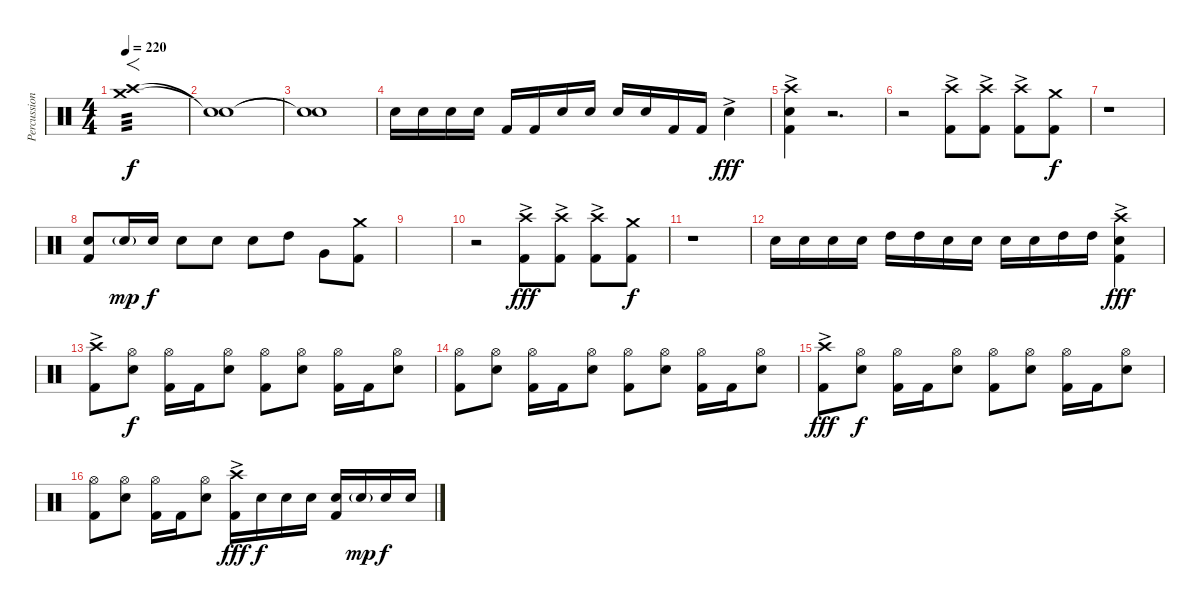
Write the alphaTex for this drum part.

\track ("Percussion" "Percussion") {instrument percussion}
\staff {score}
\articulation defaults
\ts (4 4)
\tempo 220
\clef neutral
\ks c
("Crash medium (hit)" "Crash high (hit)").1{f tp 3 dy f volume 1} |
("Snare (hit)"{t} "Snare (hit)"{t}).1{volume 13} |
("Snare (hit)"{t} "Snare (hit)"{t}).1 |
"Electric Snare (hit)".16 "Electric Snare (hit)".16 "Electric Snare (hit)".16 "Electric Snare (hit)".16 "Kick (hit) 2".16 "Kick (hit) 2".16 "Electric Snare (hit)".16 "Electric Snare (hit)".16 "Electric Snare (hit)".16 "Electric Snare (hit)".16 "Kick (hit) 2".16 "Kick (hit) 2".16 "Electric Snare (hit)"{ac}.4{dy fff} |
("Crash high (hit)"{ac} "Electric Snare (hit)" "Kick (hit) 2").4 r.2{d} |
r.2 ("Crash high (hit)"{ac} "Kick (hit) 2").8 ("Crash high (hit)"{ac} "Kick (hit) 2").8 ("Crash high (hit)"{ac} "Kick (hit) 2").8 ("Crash medium (hit)" "Kick (hit) 2").8{dy f} |
r.1 |
("Electric Snare (hit)" "Kick (hit) 2").8 "Electric Snare (hit)"{g}.16{dy mp} "Electric Snare (hit)".16{dy f} "Electric Snare (hit)".8 "Electric Snare (hit)".8 "Electric Snare (hit)".8 "High Tom (hit)".8 "Very Low Tom (hit)".8 ("Crash medium (hit)" "Kick (hit) 2").8 |
|
r.2 ("Crash high (hit)"{ac} "Kick (hit) 2").8{dy fff} ("Crash high (hit)"{ac} "Kick (hit) 2").8 ("Crash high (hit)"{ac} "Kick (hit) 2").8 ("Crash medium (hit)" "Kick (hit) 2").8{dy f} |
r.1 |
"Electric Snare (hit)".16 "Electric Snare (hit)".16 "Electric Snare (hit)".16 "Electric Snare (hit)".16 "High Tom (hit)".16 "High Tom (hit)".16 "Electric Snare (hit)".16 "Electric Snare (hit)".16 "Electric Snare (hit)".16 "Electric Snare (hit)".16 "High Tom (hit)".16 "High Tom (hit)".16 ("Crash high (hit)"{ac} "Electric Snare (hit)" "Kick (hit) 2").4{dy fff} |
("Crash high (hit)"{ac} "Kick (hit) 2").8 ("Hi-Hat (open)" "Electric Snare (hit)").8{dy f} ("Hi-Hat (open)" "Kick (hit) 2").16 "Kick (hit) 2".16 ("Hi-Hat (open)" "Electric Snare (hit)").8 ("Hi-Hat (open)" "Kick (hit) 2").8 ("Hi-Hat (open)" "Electric Snare (hit)").8 ("Hi-Hat (open)" "Kick (hit) 2").16 "Kick (hit) 2".16 ("Hi-Hat (open)" "Electric Snare (hit)").8 |
("Hi-Hat (open)" "Kick (hit) 2").8 ("Hi-Hat (open)" "Electric Snare (hit)").8 ("Hi-Hat (open)" "Kick (hit) 2").16 "Kick (hit) 2".16 ("Hi-Hat (open)" "Electric Snare (hit)").8 ("Hi-Hat (open)" "Kick (hit) 2").8 ("Hi-Hat (open)" "Electric Snare (hit)").8 ("Hi-Hat (open)" "Kick (hit) 2").16 "Kick (hit) 2".16 ("Hi-Hat (open)" "Electric Snare (hit)").8 |
("Crash high (hit)"{ac} "Kick (hit) 2").8{dy fff} ("Hi-Hat (open)" "Electric Snare (hit)").8{dy f} ("Hi-Hat (open)" "Kick (hit) 2").16 "Kick (hit) 2".16 ("Hi-Hat (open)" "Electric Snare (hit)").8 ("Hi-Hat (open)" "Kick (hit) 2").8 ("Hi-Hat (open)" "Electric Snare (hit)").8 ("Hi-Hat (open)" "Kick (hit) 2").16 "Kick (hit) 2".16 ("Hi-Hat (open)" "Electric Snare (hit)").8 |
("Hi-Hat (open)" "Kick (hit) 2").8 ("Hi-Hat (open)" "Electric Snare (hit)").8 ("Hi-Hat (open)" "Kick (hit) 2").16 "Kick (hit) 2".16 ("Hi-Hat (open)" "Electric Snare (hit)").8 ("Crash high (hit)"{ac} "Kick (hit) 2").16{dy fff} "Electric Snare (hit)".16{dy f} "Electric Snare (hit)".16 "Electric Snare (hit)".16 ("Electric Snare (hit)" "Kick (hit) 2").16 "Electric Snare (hit)"{g}.16{dy mp} "Electric Snare (hit)".16{dy f} "Electric Snare (hit)".16
